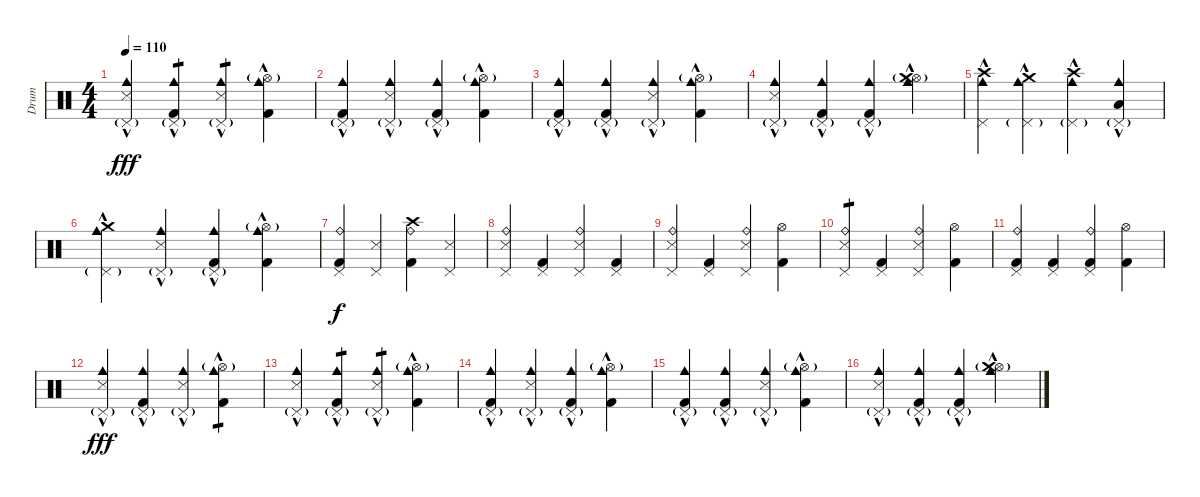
\track ("Drum" "Drum") {instrument percussion}
\staff {score}
\articulation defaults
\ts (4 4)
\tempo 110
\clef neutral
\ks c
("Pedal Hi-Hat (hit)"{g} "Cowbell medium (hit)"{hac} "Snare (side stick) 3"{hac}).4{dy fff} ("Pedal Hi-Hat (hit)"{g} "Cowbell medium (hit)"{hac} "Kick (hit) 2").4{tp 1} ("Pedal Hi-Hat (hit)"{g} "Cowbell medium (hit)"{hac} "Snare (side stick) 3"{hac}).4{tp 1} ("Hi-Hat (open)"{g} "Cowbell medium (hit)"{hac} "Kick (hit) 2").4 |
("Pedal Hi-Hat (hit)"{g} "Cowbell medium (hit)"{hac} "Kick (hit) 2").4 ("Pedal Hi-Hat (hit)"{g} "Cowbell medium (hit)"{hac} "Snare (side stick) 3"{hac}).4 ("Pedal Hi-Hat (hit)"{g} "Cowbell medium (hit)"{hac} "Kick (hit) 2").4 ("Hi-Hat (open)"{g} "Cowbell medium (hit)"{hac} "Kick (hit) 2").4 |
("Pedal Hi-Hat (hit)"{g} "Cowbell medium (hit)"{hac} "Kick (hit) 2").4 ("Pedal Hi-Hat (hit)"{g} "Cowbell medium (hit)"{hac} "Kick (hit) 2").4 ("Pedal Hi-Hat (hit)"{g} "Cowbell medium (hit)"{hac} "Snare (side stick) 3"{hac}).4 ("Hi-Hat (open)"{g} "Cowbell medium (hit)"{hac} "Kick (hit) 2").4 |
("Pedal Hi-Hat (hit)"{g} "Cowbell medium (hit)"{hac} "Snare (side stick) 3"{hac}).4 ("Pedal Hi-Hat (hit)"{g} "Cowbell medium (hit)"{hac} "Kick (hit) 2").4 ("Pedal Hi-Hat (hit)"{g} "Cowbell medium (hit)"{hac} "Kick (hit) 2").4 ("Hi-Hat (open)"{g} "Cowbell medium (hit)"{hac} "Crash medium (hit)"{hac}).4 |
("Pedal Hi-Hat (hit)" "Cowbell medium (hit)"{hac} "Crash high (hit)").4 ("Pedal Hi-Hat (hit)"{g} "Cowbell medium (hit)"{hac} "Crash medium (hit)").4 ("Pedal Hi-Hat (hit)"{g} "Cowbell medium (hit)"{hac} "Crash high (hit)").4 ("Pedal Hi-Hat (hit)"{g} "Cowbell medium (hit)"{hac} "Low Tom (hit)").4 |
("Pedal Hi-Hat (hit)"{g} "Cowbell medium (hit)"{hac} "Crash medium (hit)").4 ("Pedal Hi-Hat (hit)"{g} "Cowbell medium (hit)"{hac} "Snare (side stick) 3"{hac}).4 ("Pedal Hi-Hat (hit)"{g} "Cowbell medium (hit)"{hac} "Kick (hit) 2").4 ("Hi-Hat (open)"{g} "Cowbell medium (hit)"{hac} "Kick (hit) 2").4 |
("Pedal Hi-Hat (hit)" "Kick (hit) 2" "Ride (bell)").4{dy f} ("Pedal Hi-Hat (hit)" "Snare (side stick) 3").4 ("Crash high (hit)" "Kick (hit) 2" "Ride (bell)").4 ("Pedal Hi-Hat (hit)" "Snare (side stick) 3").4 |
("Pedal Hi-Hat (hit)" "Snare (side stick) 3" "Ride (bell)").4 ("Pedal Hi-Hat (hit)" "Kick (hit) 2").4 ("Pedal Hi-Hat (hit)" "Snare (side stick) 3" "Ride (bell)").4 ("Pedal Hi-Hat (hit)" "Kick (hit) 2").4 |
("Pedal Hi-Hat (hit)" "Snare (side stick) 3" "Ride (bell)").4 ("Pedal Hi-Hat (hit)" "Kick (hit) 2").4 ("Pedal Hi-Hat (hit)" "Snare (side stick) 3" "Ride (bell)").4 ("Hi-Hat (open)" "Kick (hit) 2").4 |
("Pedal Hi-Hat (hit)" "Snare (side stick) 3" "Ride (bell)").4{tp 1} ("Pedal Hi-Hat (hit)" "Kick (hit) 2").4 ("Pedal Hi-Hat (hit)" "Snare (side stick) 3" "Ride (bell)").4 ("Hi-Hat (open)" "Kick (hit) 2").4 |
("Pedal Hi-Hat (hit)" "Kick (hit) 2" "Ride (bell)").4 ("Pedal Hi-Hat (hit)" "Kick (hit) 2").4 ("Pedal Hi-Hat (hit)" "Kick (hit) 2" "Ride (bell)").4 ("Hi-Hat (open)" "Kick (hit) 2").4 |
("Pedal Hi-Hat (hit)"{g} "Cowbell medium (hit)"{hac} "Snare (side stick) 3"{hac}).4{dy fff} ("Pedal Hi-Hat (hit)"{g} "Cowbell medium (hit)"{hac} "Kick (hit) 2").4 ("Pedal Hi-Hat (hit)"{g} "Cowbell medium (hit)"{hac} "Snare (side stick) 3"{hac}).4 ("Hi-Hat (open)"{g} "Cowbell medium (hit)"{hac} "Kick (hit) 2").4{tp 1} |
("Pedal Hi-Hat (hit)"{g} "Cowbell medium (hit)"{hac} "Snare (side stick) 3"{hac}).4 ("Pedal Hi-Hat (hit)"{g} "Cowbell medium (hit)"{hac} "Kick (hit) 2").4{tp 1} ("Pedal Hi-Hat (hit)"{g} "Cowbell medium (hit)"{hac} "Snare (side stick) 3"{hac}).4{tp 1} ("Hi-Hat (open)"{g} "Cowbell medium (hit)"{hac} "Kick (hit) 2").4 |
("Pedal Hi-Hat (hit)"{g} "Cowbell medium (hit)"{hac} "Kick (hit) 2").4 ("Pedal Hi-Hat (hit)"{g} "Cowbell medium (hit)"{hac} "Snare (side stick) 3"{hac}).4 ("Pedal Hi-Hat (hit)"{g} "Cowbell medium (hit)"{hac} "Kick (hit) 2").4 ("Hi-Hat (open)"{g} "Cowbell medium (hit)"{hac} "Kick (hit) 2").4 |
("Pedal Hi-Hat (hit)"{g} "Cowbell medium (hit)"{hac} "Kick (hit) 2").4 ("Pedal Hi-Hat (hit)"{g} "Cowbell medium (hit)"{hac} "Kick (hit) 2").4 ("Pedal Hi-Hat (hit)"{g} "Cowbell medium (hit)"{hac} "Snare (side stick) 3"{hac}).4 ("Hi-Hat (open)"{g} "Cowbell medium (hit)"{hac} "Kick (hit) 2").4 |
("Pedal Hi-Hat (hit)"{g} "Cowbell medium (hit)"{hac} "Snare (side stick) 3"{hac}).4 ("Pedal Hi-Hat (hit)"{g} "Cowbell medium (hit)"{hac} "Kick (hit) 2").4 ("Pedal Hi-Hat (hit)"{g} "Cowbell medium (hit)"{hac} "Kick (hit) 2").4 ("Hi-Hat (open)"{g} "Cowbell medium (hit)"{hac} "Crash medium (hit)"{hac}).4
